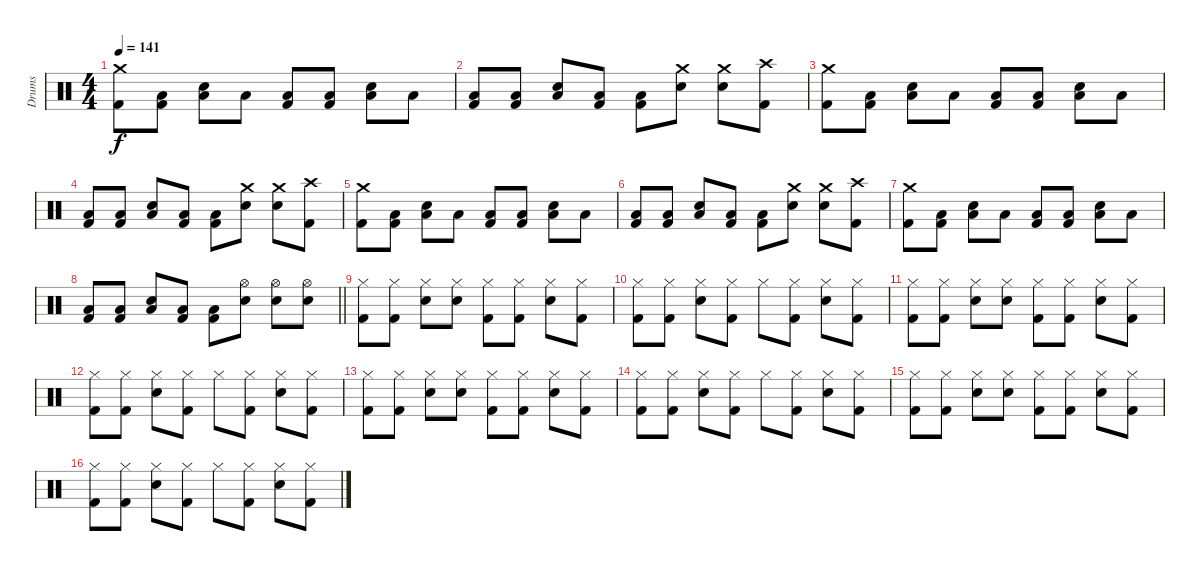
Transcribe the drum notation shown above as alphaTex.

\track ("Drums" "Drums") {instrument percussion}
\staff {score}
\articulation defaults
\ts (4 4)
\tempo 141
\clef neutral
\ks c
("Crash medium (hit)" "Kick (hit) 2").8{dy f} ("Low Floor Tom (hit)" "Kick (hit) 2").8 ("Electric Snare (hit)" "Low Floor Tom (hit)").8 "Low Floor Tom (hit)".8 ("Low Floor Tom (hit)" "Kick (hit) 2").8 ("Low Floor Tom (hit)" "Kick (hit) 2").8 ("Electric Snare (hit)" "Low Floor Tom (hit)").8 "Low Floor Tom (hit)".8 |
("Low Floor Tom (hit)" "Kick (hit) 2").8 ("Low Floor Tom (hit)" "Kick (hit) 2").8 ("Electric Snare (hit)" "Low Floor Tom (hit)").8 ("Low Floor Tom (hit)" "Kick (hit) 2").8 ("Low Floor Tom (hit)" "Kick (hit) 2").8 ("Crash medium (hit)" "Electric Snare (hit)").8 ("Crash medium (hit)" "Electric Snare (hit)").8 ("Crash high (hit)" "Kick (hit) 2").8 |
("Crash medium (hit)" "Kick (hit) 2").8 ("Low Floor Tom (hit)" "Kick (hit) 2").8 ("Electric Snare (hit)" "Low Floor Tom (hit)").8 "Low Floor Tom (hit)".8 ("Low Floor Tom (hit)" "Kick (hit) 2").8 ("Low Floor Tom (hit)" "Kick (hit) 2").8 ("Electric Snare (hit)" "Low Floor Tom (hit)").8 "Low Floor Tom (hit)".8 |
("Low Floor Tom (hit)" "Kick (hit) 2").8 ("Low Floor Tom (hit)" "Kick (hit) 2").8 ("Electric Snare (hit)" "Low Floor Tom (hit)").8 ("Low Floor Tom (hit)" "Kick (hit) 2").8 ("Low Floor Tom (hit)" "Kick (hit) 2").8 ("Crash medium (hit)" "Electric Snare (hit)").8 ("Crash medium (hit)" "Electric Snare (hit)").8 ("Crash high (hit)" "Kick (hit) 2").8 |
("Crash medium (hit)" "Kick (hit) 2").8 ("Low Floor Tom (hit)" "Kick (hit) 2").8 ("Electric Snare (hit)" "Low Floor Tom (hit)").8 "Low Floor Tom (hit)".8 ("Low Floor Tom (hit)" "Kick (hit) 2").8 ("Low Floor Tom (hit)" "Kick (hit) 2").8 ("Electric Snare (hit)" "Low Floor Tom (hit)").8 "Low Floor Tom (hit)".8 |
("Low Floor Tom (hit)" "Kick (hit) 2").8 ("Low Floor Tom (hit)" "Kick (hit) 2").8 ("Electric Snare (hit)" "Low Floor Tom (hit)").8 ("Low Floor Tom (hit)" "Kick (hit) 2").8 ("Low Floor Tom (hit)" "Kick (hit) 2").8 ("Crash medium (hit)" "Electric Snare (hit)").8 ("Crash medium (hit)" "Electric Snare (hit)").8 ("Crash high (hit)" "Kick (hit) 2").8 |
("Crash medium (hit)" "Kick (hit) 2").8 ("Low Floor Tom (hit)" "Kick (hit) 2").8 ("Electric Snare (hit)" "Low Floor Tom (hit)").8 "Low Floor Tom (hit)".8 ("Low Floor Tom (hit)" "Kick (hit) 2").8 ("Low Floor Tom (hit)" "Kick (hit) 2").8 ("Electric Snare (hit)" "Low Floor Tom (hit)").8 "Low Floor Tom (hit)".8 |
\barLineRight lightlight
("Low Floor Tom (hit)" "Kick (hit) 2").8 ("Low Floor Tom (hit)" "Kick (hit) 2").8 ("Electric Snare (hit)" "Low Floor Tom (hit)").8 ("Low Floor Tom (hit)" "Kick (hit) 2").8 ("Low Floor Tom (hit)" "Kick (hit) 2").8 ("Hi-Hat (open)" "Electric Snare (hit)").8 ("Hi-Hat (open)" "Electric Snare (hit)").8 ("Hi-Hat (open)" "Electric Snare (hit)").8 |
("Hi-Hat (closed)" "Kick (hit) 2").8 ("Hi-Hat (closed)" "Kick (hit) 2").8 ("Hi-Hat (closed)" "Electric Snare (hit)").8 ("Hi-Hat (closed)" "Electric Snare (hit)").8 ("Hi-Hat (closed)" "Kick (hit) 2").8 ("Hi-Hat (closed)" "Kick (hit) 2").8 ("Hi-Hat (closed)" "Electric Snare (hit)").8 ("Hi-Hat (closed)" "Kick (hit) 2").8 |
("Hi-Hat (closed)" "Kick (hit) 2").8 ("Hi-Hat (closed)" "Kick (hit) 2").8 ("Hi-Hat (closed)" "Electric Snare (hit)").8 ("Hi-Hat (closed)" "Kick (hit) 2").8 "Hi-Hat (closed)".8 ("Hi-Hat (closed)" "Kick (hit) 2").8 ("Hi-Hat (closed)" "Electric Snare (hit)").8 ("Hi-Hat (closed)" "Kick (hit) 2").8 |
("Hi-Hat (closed)" "Kick (hit) 2").8 ("Hi-Hat (closed)" "Kick (hit) 2").8 ("Hi-Hat (closed)" "Electric Snare (hit)").8 ("Hi-Hat (closed)" "Electric Snare (hit)").8 ("Hi-Hat (closed)" "Kick (hit) 2").8 ("Hi-Hat (closed)" "Kick (hit) 2").8 ("Hi-Hat (closed)" "Electric Snare (hit)").8 ("Hi-Hat (closed)" "Kick (hit) 2").8 |
("Hi-Hat (closed)" "Kick (hit) 2").8 ("Hi-Hat (closed)" "Kick (hit) 2").8 ("Hi-Hat (closed)" "Electric Snare (hit)").8 ("Hi-Hat (closed)" "Kick (hit) 2").8 "Hi-Hat (closed)".8 ("Hi-Hat (closed)" "Kick (hit) 2").8 ("Hi-Hat (closed)" "Electric Snare (hit)").8 ("Hi-Hat (closed)" "Kick (hit) 2").8 |
("Hi-Hat (closed)" "Kick (hit) 2").8 ("Hi-Hat (closed)" "Kick (hit) 2").8 ("Hi-Hat (closed)" "Electric Snare (hit)").8 ("Hi-Hat (closed)" "Electric Snare (hit)").8 ("Hi-Hat (closed)" "Kick (hit) 2").8 ("Hi-Hat (closed)" "Kick (hit) 2").8 ("Hi-Hat (closed)" "Electric Snare (hit)").8 ("Hi-Hat (closed)" "Kick (hit) 2").8 |
("Hi-Hat (closed)" "Kick (hit) 2").8 ("Hi-Hat (closed)" "Kick (hit) 2").8 ("Hi-Hat (closed)" "Electric Snare (hit)").8 ("Hi-Hat (closed)" "Kick (hit) 2").8 "Hi-Hat (closed)".8 ("Hi-Hat (closed)" "Kick (hit) 2").8 ("Hi-Hat (closed)" "Electric Snare (hit)").8 ("Hi-Hat (closed)" "Kick (hit) 2").8 |
("Hi-Hat (closed)" "Kick (hit) 2").8 ("Hi-Hat (closed)" "Kick (hit) 2").8 ("Hi-Hat (closed)" "Electric Snare (hit)").8 ("Hi-Hat (closed)" "Electric Snare (hit)").8 ("Hi-Hat (closed)" "Kick (hit) 2").8 ("Hi-Hat (closed)" "Kick (hit) 2").8 ("Hi-Hat (closed)" "Electric Snare (hit)").8 ("Hi-Hat (closed)" "Kick (hit) 2").8 |
("Hi-Hat (closed)" "Kick (hit) 2").8 ("Hi-Hat (closed)" "Kick (hit) 2").8 ("Hi-Hat (closed)" "Electric Snare (hit)").8 ("Hi-Hat (closed)" "Kick (hit) 2").8 "Hi-Hat (closed)".8 ("Hi-Hat (closed)" "Kick (hit) 2").8 ("Hi-Hat (closed)" "Electric Snare (hit)").8 ("Hi-Hat (closed)" "Kick (hit) 2").8
